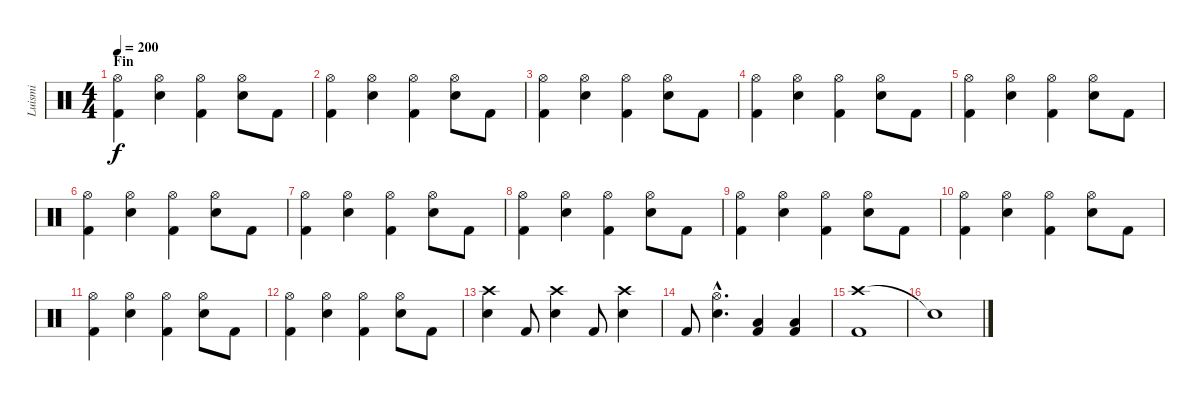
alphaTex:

\track ("Luismi" "Luismi") {instrument percussion}
\staff {score}
\articulation defaults
\ts (4 4)
\section ("" "Fin")
\tempo 200
\clef neutral
\ks c
("Hi-Hat (open)" "Kick (hit) 2").4{dy f} ("Hi-Hat (open)" "Electric Snare (hit)").4 ("Hi-Hat (open)" "Kick (hit) 2").4 ("Hi-Hat (open)" "Electric Snare (hit)").8 "Kick (hit) 2".8 |
("Hi-Hat (open)" "Kick (hit) 2").4 ("Hi-Hat (open)" "Electric Snare (hit)").4 ("Hi-Hat (open)" "Kick (hit) 2").4 ("Hi-Hat (open)" "Electric Snare (hit)").8 "Kick (hit) 2".8 |
("Hi-Hat (open)" "Kick (hit) 2").4 ("Hi-Hat (open)" "Electric Snare (hit)").4 ("Hi-Hat (open)" "Kick (hit) 2").4 ("Hi-Hat (open)" "Electric Snare (hit)").8 "Kick (hit) 2".8 |
("Hi-Hat (open)" "Kick (hit) 2").4 ("Hi-Hat (open)" "Electric Snare (hit)").4 ("Hi-Hat (open)" "Kick (hit) 2").4 ("Hi-Hat (open)" "Electric Snare (hit)").8 "Kick (hit) 2".8 |
("Hi-Hat (open)" "Kick (hit) 2").4 ("Hi-Hat (open)" "Electric Snare (hit)").4 ("Hi-Hat (open)" "Kick (hit) 2").4 ("Hi-Hat (open)" "Electric Snare (hit)").8 "Kick (hit) 2".8 |
("Hi-Hat (open)" "Kick (hit) 2").4 ("Hi-Hat (open)" "Electric Snare (hit)").4 ("Hi-Hat (open)" "Kick (hit) 2").4 ("Hi-Hat (open)" "Electric Snare (hit)").8 "Kick (hit) 2".8 |
("Hi-Hat (open)" "Kick (hit) 2").4 ("Hi-Hat (open)" "Electric Snare (hit)").4 ("Hi-Hat (open)" "Kick (hit) 2").4 ("Hi-Hat (open)" "Electric Snare (hit)").8 "Kick (hit) 2".8 |
("Hi-Hat (open)" "Kick (hit) 2").4 ("Hi-Hat (open)" "Electric Snare (hit)").4 ("Hi-Hat (open)" "Kick (hit) 2").4 ("Hi-Hat (open)" "Electric Snare (hit)").8 "Kick (hit) 2".8 |
("Hi-Hat (open)" "Kick (hit) 2").4 ("Hi-Hat (open)" "Electric Snare (hit)").4 ("Hi-Hat (open)" "Kick (hit) 2").4 ("Hi-Hat (open)" "Electric Snare (hit)").8 "Kick (hit) 2".8 |
("Hi-Hat (open)" "Kick (hit) 2").4 ("Hi-Hat (open)" "Electric Snare (hit)").4 ("Hi-Hat (open)" "Kick (hit) 2").4 ("Hi-Hat (open)" "Electric Snare (hit)").8 "Kick (hit) 2".8 |
("Hi-Hat (open)" "Kick (hit) 2").4 ("Hi-Hat (open)" "Electric Snare (hit)").4 ("Hi-Hat (open)" "Kick (hit) 2").4 ("Hi-Hat (open)" "Electric Snare (hit)").8 "Kick (hit) 2".8 |
("Hi-Hat (open)" "Kick (hit) 2").4 ("Hi-Hat (open)" "Electric Snare (hit)").4 ("Hi-Hat (open)" "Kick (hit) 2").4 ("Hi-Hat (open)" "Electric Snare (hit)").8 "Kick (hit) 2".8 |
("Crash high (hit)" "Electric Snare (hit)").4 "Kick (hit) 2".8 ("Crash high (hit)" "Electric Snare (hit)").4 "Kick (hit) 2".8 ("Crash high (hit)" "Electric Snare (hit)").4 |
"Kick (hit) 2".8 ("Hi-Hat (open)"{hac} "Electric Snare (hit)"{hac}).4{d} ("Low Floor Tom (hit)" "Kick (hit) 2").4 ("Low Floor Tom (hit)" "Kick (hit) 2").4 |
("Crash high (hit)" "Kick (hit) 2").1 |
"Snare (hit)"{t}.1
